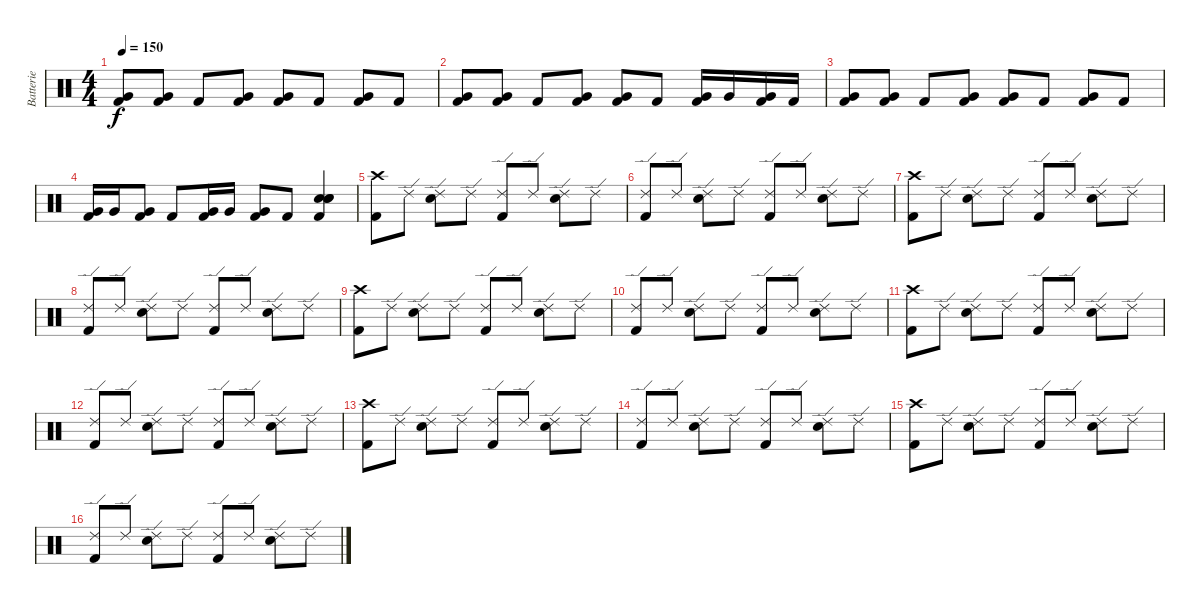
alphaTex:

\track ("Batterie" "Batterie") {instrument percussion}
\staff {score}
\articulation defaults
\ts (4 4)
\tempo 150
\clef neutral
\ks c
("Very Low Tom (hit)" "Kick (hit) 2").8{dy f} ("Very Low Tom (hit)" "Kick (hit) 2").8 "Kick (hit) 2".8 ("Very Low Tom (hit)" "Kick (hit) 2").8 ("Very Low Tom (hit)" "Kick (hit) 2").8 "Kick (hit) 2".8 ("Very Low Tom (hit)" "Kick (hit) 2").8 "Kick (hit) 2".8 |
("Very Low Tom (hit)" "Kick (hit) 2").8 ("Very Low Tom (hit)" "Kick (hit) 2").8 "Kick (hit) 2".8 ("Very Low Tom (hit)" "Kick (hit) 2").8 ("Very Low Tom (hit)" "Kick (hit) 2").8 "Kick (hit) 2".8 ("Very Low Tom (hit)" "Kick (hit) 2").16 "Very Low Tom (hit)".16 ("Very Low Tom (hit)" "Kick (hit) 2").16 "Kick (hit) 2".16 |
("Very Low Tom (hit)" "Kick (hit) 2").8 ("Very Low Tom (hit)" "Kick (hit) 2").8 "Kick (hit) 2".8 ("Very Low Tom (hit)" "Kick (hit) 2").8 ("Very Low Tom (hit)" "Kick (hit) 2").8 "Kick (hit) 2".8 ("Very Low Tom (hit)" "Kick (hit) 2").8 "Kick (hit) 2".8 |
("Very Low Tom (hit)" "Kick (hit) 2").16 "Very Low Tom (hit)".16 ("Very Low Tom (hit)" "Kick (hit) 2").8 "Kick (hit) 2".8 ("Very Low Tom (hit)" "Kick (hit) 2").16 "Very Low Tom (hit)".16 ("Very Low Tom (hit)" "Kick (hit) 2").8 "Kick (hit) 2".8 ("Snare (hit) 2" "Snare (hit) 2" "Snare (hit) 2" "Kick (hit) 2").4 |
("Crash high (hit)" "Kick (hit) 2").8 "Ride (edge) 2".8 ("Ride (edge) 2" "Snare (hit) 2").8 "Ride (edge) 2".8 ("Ride (edge) 2" "Kick (hit) 2").8 "Ride (edge) 2".8 ("Ride (edge) 2" "Snare (hit) 2").8 "Ride (edge) 2".8 |
("Ride (edge) 2" "Kick (hit) 2").8 "Ride (edge) 2".8 ("Ride (edge) 2" "Snare (hit) 2").8 "Ride (edge) 2".8 ("Ride (edge) 2" "Kick (hit) 2").8 "Ride (edge) 2".8 ("Ride (edge) 2" "Snare (hit) 2").8 "Ride (edge) 2".8 |
("Crash high (hit)" "Kick (hit) 2").8 "Ride (edge) 2".8 ("Ride (edge) 2" "Snare (hit) 2").8 "Ride (edge) 2".8 ("Ride (edge) 2" "Kick (hit) 2").8 "Ride (edge) 2".8 ("Ride (edge) 2" "Snare (hit) 2").8 "Ride (edge) 2".8 |
("Ride (edge) 2" "Kick (hit) 2").8 "Ride (edge) 2".8 ("Ride (edge) 2" "Snare (hit) 2").8 "Ride (edge) 2".8 ("Ride (edge) 2" "Kick (hit) 2").8 "Ride (edge) 2".8 ("Ride (edge) 2" "Snare (hit) 2").8 "Ride (edge) 2".8 |
("Crash high (hit)" "Kick (hit) 2").8 "Ride (edge) 2".8 ("Ride (edge) 2" "Snare (hit) 2").8 "Ride (edge) 2".8 ("Ride (edge) 2" "Kick (hit) 2").8 "Ride (edge) 2".8 ("Ride (edge) 2" "Snare (hit) 2").8 "Ride (edge) 2".8 |
("Ride (edge) 2" "Kick (hit) 2").8 "Ride (edge) 2".8 ("Ride (edge) 2" "Snare (hit) 2").8 "Ride (edge) 2".8 ("Ride (edge) 2" "Kick (hit) 2").8 "Ride (edge) 2".8 ("Ride (edge) 2" "Snare (hit) 2").8 "Ride (edge) 2".8 |
("Crash high (hit)" "Kick (hit) 2").8 "Ride (edge) 2".8 ("Ride (edge) 2" "Snare (hit) 2").8 "Ride (edge) 2".8 ("Ride (edge) 2" "Kick (hit) 2").8 "Ride (edge) 2".8 ("Ride (edge) 2" "Snare (hit) 2").8 "Ride (edge) 2".8 |
("Ride (edge) 2" "Kick (hit) 2").8 "Ride (edge) 2".8 ("Ride (edge) 2" "Snare (hit) 2").8 "Ride (edge) 2".8 ("Ride (edge) 2" "Kick (hit) 2").8 "Ride (edge) 2".8 ("Ride (edge) 2" "Snare (hit) 2").8 "Ride (edge) 2".8 |
("Crash high (hit)" "Kick (hit) 2").8 "Ride (edge) 2".8 ("Ride (edge) 2" "Snare (hit) 2").8 "Ride (edge) 2".8 ("Ride (edge) 2" "Kick (hit) 2").8 "Ride (edge) 2".8 ("Ride (edge) 2" "Snare (hit) 2").8 "Ride (edge) 2".8 |
("Ride (edge) 2" "Kick (hit) 2").8 "Ride (edge) 2".8 ("Ride (edge) 2" "Snare (hit) 2").8 "Ride (edge) 2".8 ("Ride (edge) 2" "Kick (hit) 2").8 "Ride (edge) 2".8 ("Ride (edge) 2" "Snare (hit) 2").8 "Ride (edge) 2".8 |
("Crash high (hit)" "Kick (hit) 2").8 "Ride (edge) 2".8 ("Ride (edge) 2" "Snare (hit) 2").8 "Ride (edge) 2".8 ("Ride (edge) 2" "Kick (hit) 2").8 "Ride (edge) 2".8 ("Ride (edge) 2" "Snare (hit) 2").8 "Ride (edge) 2".8 |
("Ride (edge) 2" "Kick (hit) 2").8 "Ride (edge) 2".8 ("Ride (edge) 2" "Snare (hit) 2").8 "Ride (edge) 2".8 ("Ride (edge) 2" "Kick (hit) 2").8 "Ride (edge) 2".8 ("Ride (edge) 2" "Snare (hit) 2").8 "Ride (edge) 2".8
